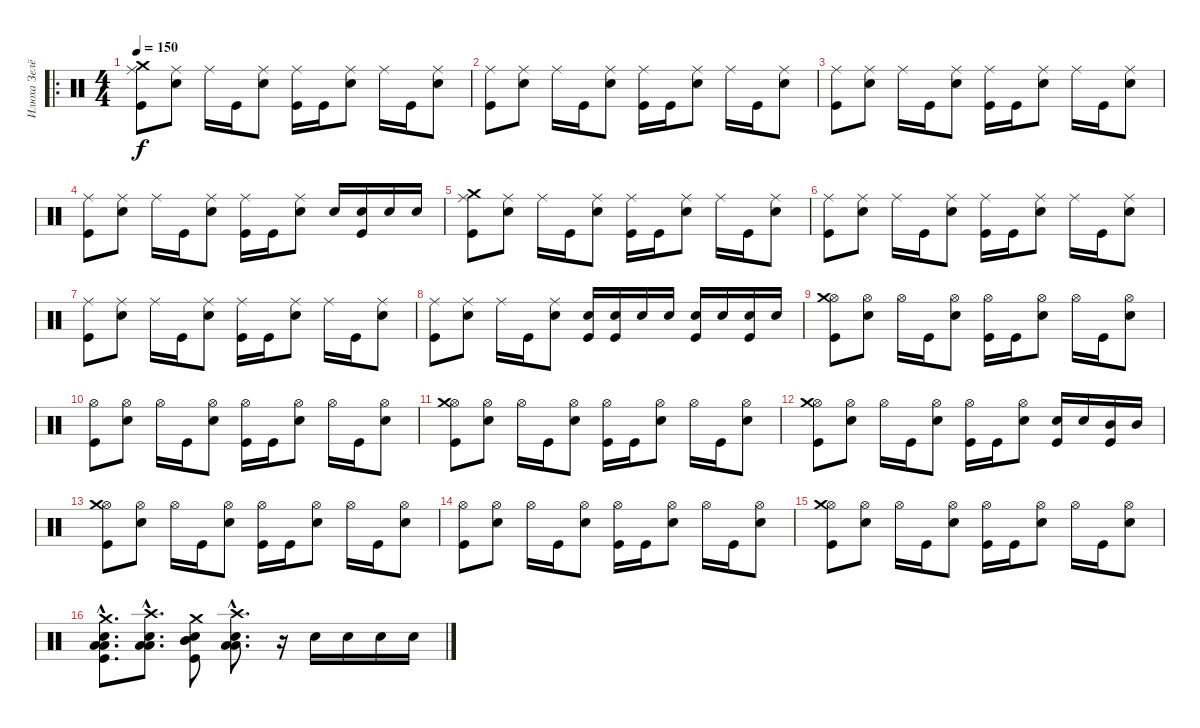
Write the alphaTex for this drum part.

\track ("Илюха Зелёный (БАРАБАНЫ)" "Илюха Зелё") {instrument percussion}
\staff {score}
\articulation defaults
\ro
\ts (4 4)
\tempo 150
\clef neutral
\ks c
("Ride (middle)" "Crash medium (hit)" "Kick (hit)").8{dy f} ("Ride (middle)" "Electric Snare (hit)").8 "Ride (middle)".16 "Kick (hit)".16 ("Ride (middle)" "Electric Snare (hit)").8 ("Ride (middle)" "Kick (hit)").16 "Kick (hit)".16 ("Ride (middle)" "Electric Snare (hit)").8 "Ride (middle)".16 "Kick (hit)".16 ("Ride (middle)" "Electric Snare (hit)").8 |
("Ride (middle)" "Kick (hit)").8 ("Ride (middle)" "Electric Snare (hit)").8 "Ride (middle)".16 "Kick (hit)".16 ("Ride (middle)" "Electric Snare (hit)").8 ("Ride (middle)" "Kick (hit)").16 "Kick (hit)".16 ("Ride (middle)" "Electric Snare (hit)").8 "Ride (middle)".16 "Kick (hit)".16 ("Ride (middle)" "Electric Snare (hit)").8 |
("Ride (middle)" "Kick (hit)").8 ("Ride (middle)" "Electric Snare (hit)").8 "Ride (middle)".16 "Kick (hit)".16 ("Ride (middle)" "Electric Snare (hit)").8 ("Ride (middle)" "Kick (hit)").16 "Kick (hit)".16 ("Ride (middle)" "Electric Snare (hit)").8 "Ride (middle)".16 "Kick (hit)".16 ("Ride (middle)" "Electric Snare (hit)").8 |
("Ride (middle)" "Kick (hit)").8 ("Ride (middle)" "Electric Snare (hit)").8 "Ride (middle)".16 "Kick (hit)".16 ("Ride (middle)" "Electric Snare (hit)").8 ("Ride (middle)" "Kick (hit)").16 "Kick (hit)".16 ("Ride (middle)" "Electric Snare (hit)").8 "Electric Snare (hit)".16 ("Electric Snare (hit)" "Kick (hit)").16 "Electric Snare (hit)".16 "Electric Snare (hit)".16 |
("Ride (middle)" "Crash medium (hit)" "Kick (hit)").8 ("Ride (middle)" "Electric Snare (hit)").8 "Ride (middle)".16 "Kick (hit)".16 ("Ride (middle)" "Electric Snare (hit)").8 ("Ride (middle)" "Kick (hit)").16 "Kick (hit)".16 ("Ride (middle)" "Electric Snare (hit)").8 "Ride (middle)".16 "Kick (hit)".16 ("Ride (middle)" "Electric Snare (hit)").8 |
("Ride (middle)" "Kick (hit)").8 ("Ride (middle)" "Electric Snare (hit)").8 "Ride (middle)".16 "Kick (hit)".16 ("Ride (middle)" "Electric Snare (hit)").8 ("Ride (middle)" "Kick (hit)").16 "Kick (hit)".16 ("Ride (middle)" "Electric Snare (hit)").8 "Ride (middle)".16 "Kick (hit)".16 ("Ride (middle)" "Electric Snare (hit)").8 |
("Ride (middle)" "Kick (hit)").8 ("Ride (middle)" "Electric Snare (hit)").8 "Ride (middle)".16 "Kick (hit)".16 ("Ride (middle)" "Electric Snare (hit)").8 ("Ride (middle)" "Kick (hit)").16 "Kick (hit)".16 ("Ride (middle)" "Electric Snare (hit)").8 "Ride (middle)".16 "Kick (hit)".16 ("Ride (middle)" "Electric Snare (hit)").8 |
("Ride (middle)" "Kick (hit)").8 ("Ride (middle)" "Electric Snare (hit)").8 "Ride (middle)".16 "Kick (hit)".16 ("Ride (middle)" "Electric Snare (hit)").8 ("Electric Snare (hit)" "Kick (hit)").16 ("Electric Snare (hit)" "Kick (hit)").16 "Electric Snare (hit)".16 "Electric Snare (hit)".16 ("Electric Snare (hit)" "Kick (hit)").16 "Electric Snare (hit)".16 ("Electric Snare (hit)" "Kick (hit)").16 "Electric Snare (hit)".16 |
("Hi-Hat (open)" "Crash medium (hit)" "Kick (hit)").8 ("Hi-Hat (open)" "Electric Snare (hit)").8 "Hi-Hat (open)".16 "Kick (hit)".16 ("Hi-Hat (open)" "Electric Snare (hit)").8 ("Hi-Hat (open)" "Kick (hit)").16 "Kick (hit)".16 ("Hi-Hat (open)" "Electric Snare (hit)").8 "Hi-Hat (open)".16 "Kick (hit)".16 ("Hi-Hat (open)" "Electric Snare (hit)").8 |
("Hi-Hat (open)" "Kick (hit)").8 ("Hi-Hat (open)" "Electric Snare (hit)").8 "Hi-Hat (open)".16 "Kick (hit)".16 ("Hi-Hat (open)" "Electric Snare (hit)").8 ("Hi-Hat (open)" "Kick (hit)").16 "Kick (hit)".16 ("Hi-Hat (open)" "Electric Snare (hit)").8 "Hi-Hat (open)".16 "Kick (hit)".16 ("Hi-Hat (open)" "Electric Snare (hit)").8 |
("Hi-Hat (open)" "Crash medium (hit)" "Kick (hit)").8 ("Hi-Hat (open)" "Electric Snare (hit)").8 "Hi-Hat (open)".16 "Kick (hit)".16 ("Hi-Hat (open)" "Electric Snare (hit)").8 ("Hi-Hat (open)" "Kick (hit)").16 "Kick (hit)".16 ("Hi-Hat (open)" "Electric Snare (hit)").8 "Hi-Hat (open)".16 "Kick (hit)".16 ("Hi-Hat (open)" "Electric Snare (hit)").8 |
("Hi-Hat (open)" "Crash medium (hit)" "Kick (hit)").8 ("Hi-Hat (open)" "Electric Snare (hit)").8 "Hi-Hat (open)".16 "Kick (hit)".16 ("Hi-Hat (open)" "Electric Snare (hit)").8 ("Hi-Hat (open)" "Kick (hit)").16 "Kick (hit)".16 ("Hi-Hat (open)" "Electric Snare (hit)").8 ("Electric Snare (hit)" "Kick (hit)").16 "Electric Snare (hit)".16 ("Mid Tom (hit)" "Kick (hit)").16 "Mid Tom (hit)".16 |
("Hi-Hat (open)" "Crash medium (hit)" "Kick (hit)").8 ("Hi-Hat (open)" "Electric Snare (hit)").8 "Hi-Hat (open)".16 "Kick (hit)".16 ("Hi-Hat (open)" "Electric Snare (hit)").8 ("Hi-Hat (open)" "Kick (hit)").16 "Kick (hit)".16 ("Hi-Hat (open)" "Electric Snare (hit)").8 "Hi-Hat (open)".16 "Kick (hit)".16 ("Hi-Hat (open)" "Electric Snare (hit)").8 |
("Hi-Hat (open)" "Kick (hit)").8 ("Hi-Hat (open)" "Electric Snare (hit)").8 "Hi-Hat (open)".16 "Kick (hit)".16 ("Hi-Hat (open)" "Electric Snare (hit)").8 ("Hi-Hat (open)" "Kick (hit)").16 "Kick (hit)".16 ("Hi-Hat (open)" "Electric Snare (hit)").8 "Hi-Hat (open)".16 "Kick (hit)".16 ("Hi-Hat (open)" "Electric Snare (hit)").8 |
("Hi-Hat (open)" "Crash medium (hit)" "Kick (hit)").8 ("Hi-Hat (open)" "Electric Snare (hit)").8 "Hi-Hat (open)".16 "Kick (hit)".16 ("Hi-Hat (open)" "Electric Snare (hit)").8 ("Hi-Hat (open)" "Kick (hit)").16 "Kick (hit)".16 ("Hi-Hat (open)" "Electric Snare (hit)").8 "Hi-Hat (open)".16 "Kick (hit)".16 ("Hi-Hat (open)" "Electric Snare (hit)").8 |
("Crash medium (hit)"{hac} "Low Floor Tom (hit)"{hac} "Low Floor Tom (hit)"{hac} "Electric Snare (hit)"{hac} "Kick (hit)"{hac}).8{d} ("Crash high (hit)"{hac} "Low Floor Tom (hit)"{hac} "Low Floor Tom (hit)"{hac} "Electric Snare (hit)"{hac}).8{d} ("Crash medium (hit)" "Mid Tom (hit)" "Mid Tom (hit)" "Electric Snare (hit)" "Kick (hit)").8 ("Crash high (hit)"{hac} "Low Floor Tom (hit)"{hac} "Low Floor Tom (hit)"{hac} "Electric Snare (hit)"{hac}).8{d} r.16 "Electric Snare (hit)".16 "Electric Snare (hit)".16 "Electric Snare (hit)".16 "Electric Snare (hit)".16
